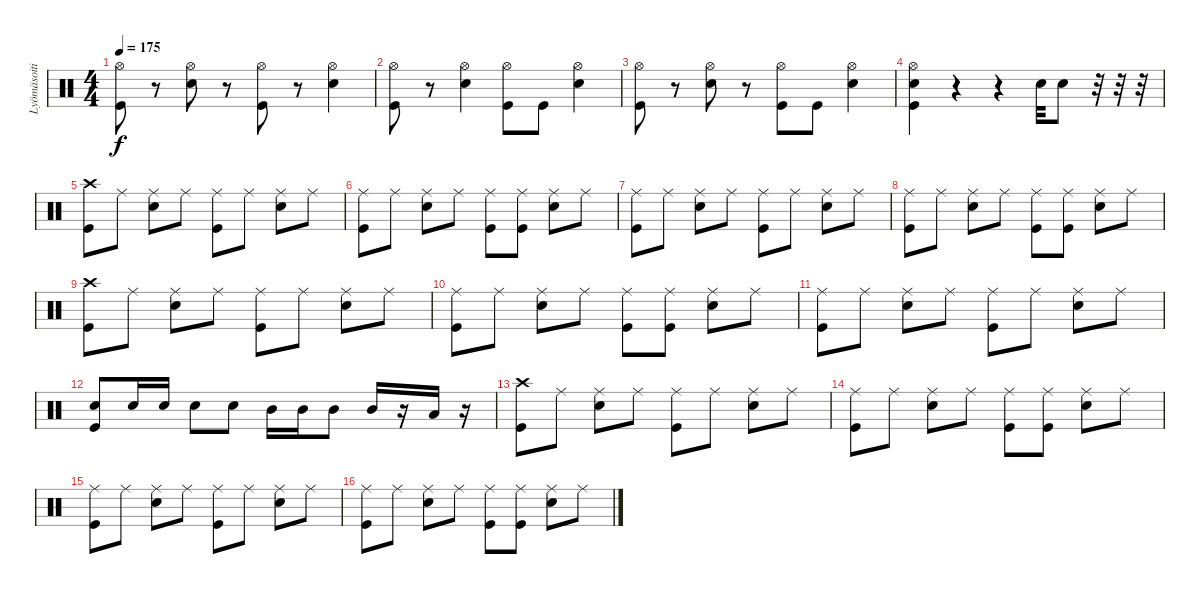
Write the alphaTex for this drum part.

\track ("Lyömäsoitin" "Lyömäsoiti") {instrument percussion}
\staff {score}
\articulation defaults
\ts (4 4)
\tempo 175
\clef neutral
\ks c
("Hi-Hat (open)" "Kick (hit)").8{dy f} r.8 ("Hi-Hat (open)" "Electric Snare (hit)").8 r.8 ("Hi-Hat (open)" "Kick (hit)").8 r.8 ("Hi-Hat (open)" "Electric Snare (hit)").4 |
("Hi-Hat (open)" "Kick (hit)").8 r.8 ("Hi-Hat (open)" "Electric Snare (hit)").4 ("Hi-Hat (open)" "Kick (hit)").8 "Kick (hit)".8 ("Hi-Hat (open)" "Electric Snare (hit)").4 |
("Hi-Hat (open)" "Kick (hit)").8 r.8 ("Hi-Hat (open)" "Electric Snare (hit)").8 r.8 ("Hi-Hat (open)" "Kick (hit)").8 "Kick (hit)".8 ("Hi-Hat (open)" "Electric Snare (hit)").4 |
("Hi-Hat (open)" "Electric Snare (hit)" "Kick (hit)").4 r.4 r.4 "Electric Snare (hit)".32 "Electric Snare (hit)".8 r.32 r.32 r.32 |
("Crash high (hit)" "Kick (hit)").8 "Ride (middle)".8 ("Ride (middle)" "Electric Snare (hit)").8 "Ride (middle)".8 ("Ride (middle)" "Kick (hit)").8 "Ride (middle)".8 ("Ride (middle)" "Electric Snare (hit)").8 "Ride (middle)".8 |
("Ride (middle)" "Kick (hit)").8 "Ride (middle)".8 ("Ride (middle)" "Electric Snare (hit)").8 "Ride (middle)".8 ("Ride (middle)" "Kick (hit)").8 ("Ride (middle)" "Kick (hit)").8 ("Ride (middle)" "Electric Snare (hit)").8 "Ride (middle)".8 |
("Ride (middle)" "Kick (hit)").8 "Ride (middle)".8 ("Ride (middle)" "Electric Snare (hit)").8 "Ride (middle)".8 ("Ride (middle)" "Kick (hit)").8 "Ride (middle)".8 ("Ride (middle)" "Electric Snare (hit)").8 "Ride (middle)".8 |
("Ride (middle)" "Kick (hit)").8 "Ride (middle)".8 ("Ride (middle)" "Electric Snare (hit)").8 "Ride (middle)".8 ("Ride (middle)" "Kick (hit)").8 ("Ride (middle)" "Kick (hit)").8 ("Ride (middle)" "Electric Snare (hit)").8 "Ride (middle)".8 |
("Crash high (hit)" "Kick (hit)").8 "Ride (middle)".8 ("Ride (middle)" "Electric Snare (hit)").8 "Ride (middle)".8 ("Ride (middle)" "Kick (hit)").8 "Ride (middle)".8 ("Ride (middle)" "Electric Snare (hit)").8 "Ride (middle)".8 |
("Ride (middle)" "Kick (hit)").8 "Ride (middle)".8 ("Ride (middle)" "Electric Snare (hit)").8 "Ride (middle)".8 ("Ride (middle)" "Kick (hit)").8 ("Ride (middle)" "Kick (hit)").8 ("Ride (middle)" "Electric Snare (hit)").8 "Ride (middle)".8 |
("Ride (middle)" "Kick (hit)").8 "Ride (middle)".8 ("Ride (middle)" "Electric Snare (hit)").8 "Ride (middle)".8 ("Ride (middle)" "Kick (hit)").8 "Ride (middle)".8 ("Ride (middle)" "Electric Snare (hit)").8 "Ride (middle)".8 |
("Electric Snare (hit)" "Kick (hit)").8 "Electric Snare (hit)".16 "Electric Snare (hit)".16 "Electric Snare (hit)".8 "Electric Snare (hit)".8 "Mid Tom (hit)".16 "Mid Tom (hit)".16 "Mid Tom (hit)".8 "Mid Tom (hit)".16 r.16 "Low Tom (hit)".16 r.16 |
("Crash high (hit)" "Kick (hit)").8 "Ride (middle)".8 ("Ride (middle)" "Electric Snare (hit)").8 "Ride (middle)".8 ("Ride (middle)" "Kick (hit)").8 "Ride (middle)".8 ("Ride (middle)" "Electric Snare (hit)").8 "Ride (middle)".8 |
("Ride (middle)" "Kick (hit)").8 "Ride (middle)".8 ("Ride (middle)" "Electric Snare (hit)").8 "Ride (middle)".8 ("Ride (middle)" "Kick (hit)").8 ("Ride (middle)" "Kick (hit)").8 ("Ride (middle)" "Electric Snare (hit)").8 "Ride (middle)".8 |
("Ride (middle)" "Kick (hit)").8 "Ride (middle)".8 ("Ride (middle)" "Electric Snare (hit)").8 "Ride (middle)".8 ("Ride (middle)" "Kick (hit)").8 "Ride (middle)".8 ("Ride (middle)" "Electric Snare (hit)").8 "Ride (middle)".8 |
("Ride (middle)" "Kick (hit)").8 "Ride (middle)".8 ("Ride (middle)" "Electric Snare (hit)").8 "Ride (middle)".8 ("Ride (middle)" "Kick (hit)").8 ("Ride (middle)" "Kick (hit)").8 ("Ride (middle)" "Electric Snare (hit)").8 "Ride (middle)".8
